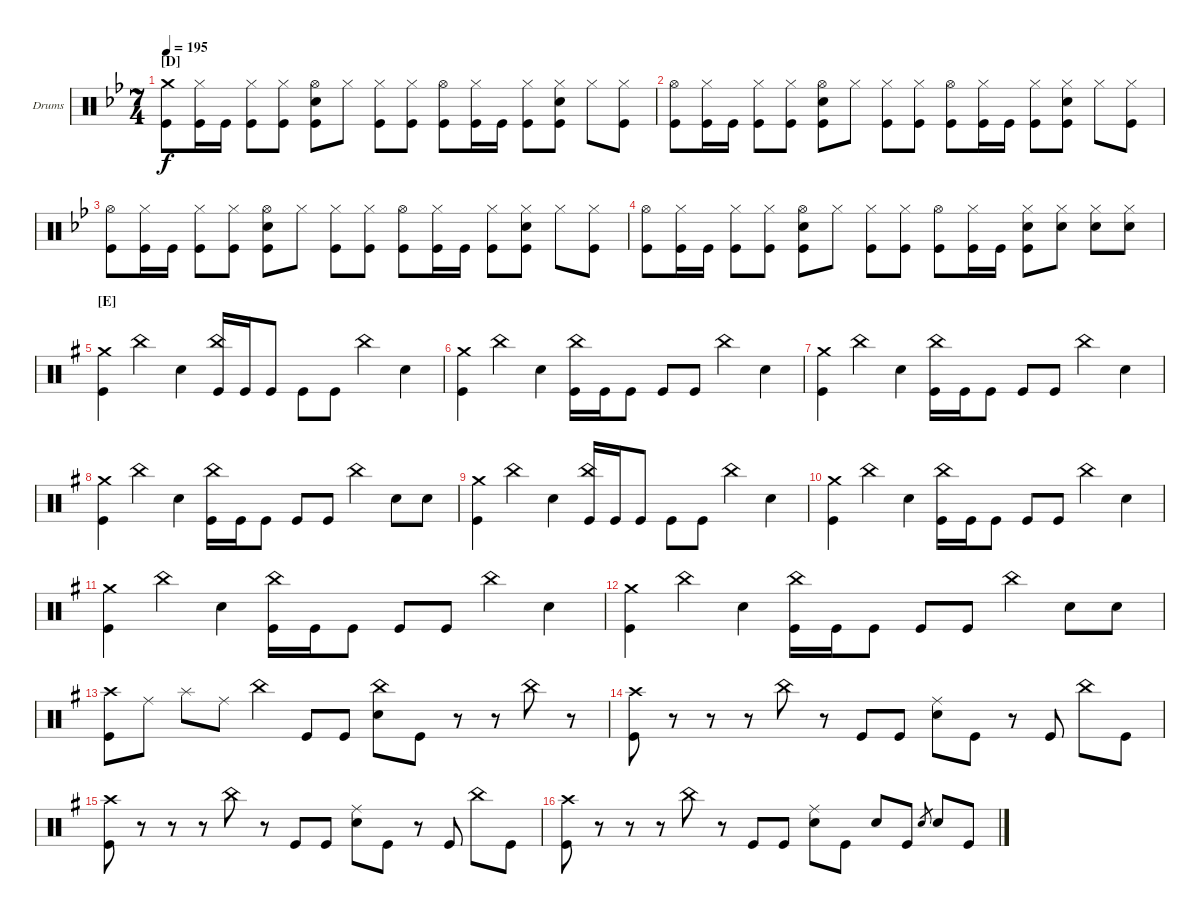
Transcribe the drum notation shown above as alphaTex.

\defaultSystemsLayout 4
\bracketExtendMode groupsimilarinstruments
\firstSystemTrackNameOrientation horizontal
\otherSystemsTrackNameOrientation horizontal
\track ("Drumkit" "Drums") {instrument percussion}
\staff {score}
\articulation defaults
\ts (7 4)
\section ("D" "")
\tempo 195
\clef neutral
\ks gminor
("Kick (hit)" "Crash medium (hit)").8{dy f} ("Kick (hit)" "Hi-Hat (closed)").16 "Kick (hit)".16 ("Kick (hit)" "Hi-Hat (closed)").8 ("Kick (hit)" "Hi-Hat (closed)").8 ("Kick (hit)" "Snare (hit) 2" "Hi-Hat (open)").8 "Hi-Hat (closed)".8 ("Kick (hit)" "Hi-Hat (closed)").8 ("Kick (hit)" "Hi-Hat (closed)").8 ("Kick (hit)" "Hi-Hat (open)").8 ("Kick (hit)" "Hi-Hat (closed)").16 "Kick (hit)".16 ("Kick (hit)" "Hi-Hat (closed)").8 ("Kick (hit)" "Snare (hit) 2" "Hi-Hat (closed)").8 "Hi-Hat (closed)".8 ("Kick (hit)" "Hi-Hat (closed)").8 |
("Kick (hit)" "Hi-Hat (open)").8 ("Kick (hit)" "Hi-Hat (closed)").16 "Kick (hit)".16 ("Kick (hit)" "Hi-Hat (closed)").8 ("Kick (hit)" "Hi-Hat (closed)").8 ("Kick (hit)" "Snare (hit) 2" "Hi-Hat (open)").8 "Hi-Hat (closed)".8 ("Kick (hit)" "Hi-Hat (closed)").8 ("Kick (hit)" "Hi-Hat (closed)").8 ("Kick (hit)" "Hi-Hat (open)").8 ("Kick (hit)" "Hi-Hat (closed)").16 "Kick (hit)".16 ("Kick (hit)" "Hi-Hat (closed)").8 ("Kick (hit)" "Snare (hit) 2" "Hi-Hat (closed)").8 "Hi-Hat (closed)".8 ("Kick (hit)" "Hi-Hat (closed)").8 |
("Kick (hit)" "Hi-Hat (open)").8 ("Kick (hit)" "Hi-Hat (closed)").16 "Kick (hit)".16 ("Kick (hit)" "Hi-Hat (closed)").8 ("Kick (hit)" "Hi-Hat (closed)").8 ("Kick (hit)" "Snare (hit) 2" "Hi-Hat (open)").8 "Hi-Hat (closed)".8 ("Kick (hit)" "Hi-Hat (closed)").8 ("Kick (hit)" "Hi-Hat (closed)").8 ("Kick (hit)" "Hi-Hat (open)").8 ("Kick (hit)" "Hi-Hat (closed)").16 "Kick (hit)".16 ("Kick (hit)" "Hi-Hat (closed)").8 ("Kick (hit)" "Snare (hit) 2" "Hi-Hat (closed)").8 "Hi-Hat (closed)".8 ("Kick (hit)" "Hi-Hat (closed)").8 |
("Kick (hit)" "Hi-Hat (open)").8 ("Kick (hit)" "Hi-Hat (closed)").16 "Kick (hit)".16 ("Kick (hit)" "Hi-Hat (closed)").8 ("Kick (hit)" "Hi-Hat (closed)").8 ("Kick (hit)" "Snare (hit) 2" "Hi-Hat (open)").8 "Hi-Hat (closed)".8 ("Kick (hit)" "Hi-Hat (closed)").8 ("Kick (hit)" "Hi-Hat (closed)").8 ("Kick (hit)" "Hi-Hat (open)").8 ("Kick (hit)" "Hi-Hat (closed)").16 "Kick (hit)".16 ("Hi-Hat (closed)" "Snare (hit) 2" "Kick (hit)").8 ("Hi-Hat (closed)" "Snare (hit) 2").8 ("Hi-Hat (closed)" "Snare (hit) 2").8 ("Hi-Hat (closed)" "Snare (hit) 2").8 |
\section ("E" "")
\ks eminor
("Crash medium (hit)" "Kick (hit)").4 "China (hit)".4 "Snare (hit) 2".4 ("China (hit)" "Kick (hit)").16 "Kick (hit)".16 "Kick (hit)".8 "Kick (hit)".8{beam invert} "Kick (hit)".8 "China (hit)".4 "Snare (hit) 2".4 |
("Crash medium (hit)" "Kick (hit)").4 "China (hit)".4 "Snare (hit) 2".4 ("China (hit)" "Kick (hit)").16 "Kick (hit)".16 "Kick (hit)".8 "Kick (hit)".8 "Kick (hit)".8 "China (hit)".4 "Snare (hit) 2".4 |
("Crash medium (hit)" "Kick (hit)").4 "China (hit)".4 "Snare (hit) 2".4 ("China (hit)" "Kick (hit)").16 "Kick (hit)".16 "Kick (hit)".8 "Kick (hit)".8 "Kick (hit)".8 "China (hit)".4 "Snare (hit) 2".4 |
("Crash medium (hit)" "Kick (hit)").4 "China (hit)".4 "Snare (hit) 2".4 ("China (hit)" "Kick (hit)").16 "Kick (hit)".16 "Kick (hit)".8 "Kick (hit)".8 "Kick (hit)".8 "China (hit)".4 "Snare (hit) 2".8 "Snare (hit) 2".8 |
("Crash medium (hit)" "Kick (hit)").4 "China (hit)".4 "Snare (hit) 2".4 ("China (hit)" "Kick (hit)").16 "Kick (hit)".16 "Kick (hit)".8 "Kick (hit)".8{beam invert} "Kick (hit)".8 "China (hit)".4 "Snare (hit) 2".4 |
("Crash medium (hit)" "Kick (hit)").4 "China (hit)".4 "Snare (hit) 2".4 ("China (hit)" "Kick (hit)").16 "Kick (hit)".16 "Kick (hit)".8 "Kick (hit)".8 "Kick (hit)".8 "China (hit)".4 "Snare (hit) 2".4 |
("Crash medium (hit)" "Kick (hit)").4 "China (hit)".4 "Snare (hit) 2".4 ("China (hit)" "Kick (hit)").16 "Kick (hit)".16 "Kick (hit)".8 "Kick (hit)".8 "Kick (hit)".8 "China (hit)".4 "Snare (hit) 2".4 |
("Crash medium (hit)" "Kick (hit)").4 "China (hit)".4 "Snare (hit) 2".4 ("China (hit)" "Kick (hit)").16 "Kick (hit)".16 "Kick (hit)".8 "Kick (hit)".8 "Kick (hit)".8 "China (hit)".4 "Snare (hit) 2".8 "Snare (hit) 2".8 |
("Crash high (hit)" "Kick (hit)").8 "Ride (middle)".8 "Splash (hit)".8 "Ride (middle)".8 "China (hit)".4 "Kick (hit)".8 "Kick (hit)".8 ("Snare (hit) 2" "China (hit)").8 "Kick (hit)".8 r.8 r.8 "China (hit)".8 r.8 |
("Crash high (hit)" "Kick (hit)").8 r.8 r.8 r.8 "China (hit)".8 r.8 "Kick (hit)".8 "Kick (hit)".8 ("Snare (hit) 2" "Ride (middle)").8 "Kick (hit)".8 r.8 "Kick (hit)".8 "China (hit)".8 "Kick (hit)".8 |
("Crash high (hit)" "Kick (hit)").8 r.8 r.8 r.8 "China (hit)".8 r.8 "Kick (hit)".8 "Kick (hit)".8 ("Snare (hit) 2" "Ride (middle)").8 "Kick (hit)".8 r.8 "Kick (hit)".8 "China (hit)".8 "Kick (hit)".8 |
("Crash high (hit)" "Kick (hit)").8 r.8 r.8 r.8 "China (hit)".8 r.8 "Kick (hit)".8 "Kick (hit)".8 ("Snare (hit) 2" "Ride (middle)").8 "Kick (hit)".8 "Snare (hit) 2".8 "Kick (hit)".8 "Snare (hit) 2".8{gr} "Snare (hit) 2".8 "Kick (hit)".8
